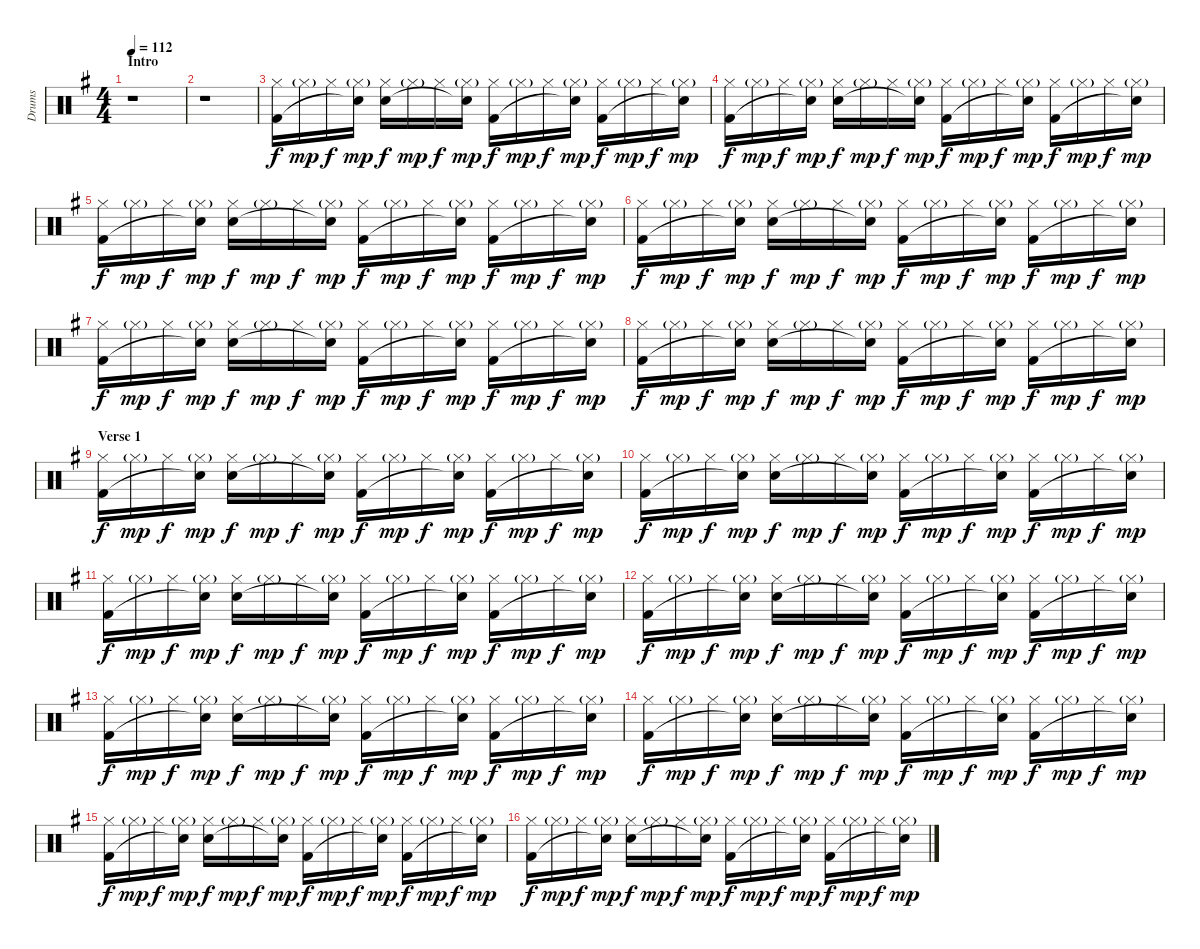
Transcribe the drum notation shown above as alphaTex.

\track ("Drums" "Drums") {instrument percussion}
\staff {score}
\articulation defaults
\ts (4 4)
\section ("" "Intro")
\tempo 112
\clef neutral
\ks g
r.1{dy f} |
r.1 |
("Hi-Hat (closed)" "Kick (hit) 2").16 "Hi-Hat (closed)"{g}.16{dy mp} "Hi-Hat (closed)".16{dy f} ("Hi-Hat (closed)"{g} "Snare (hit)"{t}).16{dy mp} ("Hi-Hat (closed)" "Electric Snare (hit)").16{dy f} "Hi-Hat (closed)"{g}.16{dy mp} "Hi-Hat (closed)".16{dy f} ("Hi-Hat (closed)"{g} "Snare (hit)"{t}).16{dy mp} ("Hi-Hat (closed)" "Kick (hit) 2").16{dy f} "Hi-Hat (closed)"{g}.16{dy mp} "Hi-Hat (closed)".16{dy f} ("Hi-Hat (closed)"{g} "Snare (hit)"{t}).16{dy mp} ("Hi-Hat (closed)" "Kick (hit) 2").16{dy f} "Hi-Hat (closed)"{g}.16{dy mp} "Hi-Hat (closed)".16{dy f} ("Hi-Hat (closed)"{g} "Snare (hit)"{t}).16{dy mp} |
("Hi-Hat (closed)" "Kick (hit) 2").16{dy f} "Hi-Hat (closed)"{g}.16{dy mp} "Hi-Hat (closed)".16{dy f} ("Hi-Hat (closed)"{g} "Snare (hit)"{t}).16{dy mp} ("Hi-Hat (closed)" "Electric Snare (hit)").16{dy f} "Hi-Hat (closed)"{g}.16{dy mp} "Hi-Hat (closed)".16{dy f} ("Hi-Hat (closed)"{g} "Snare (hit)"{t}).16{dy mp} ("Hi-Hat (closed)" "Kick (hit) 2").16{dy f} "Hi-Hat (closed)"{g}.16{dy mp} "Hi-Hat (closed)".16{dy f} ("Hi-Hat (closed)"{g} "Snare (hit)"{t}).16{dy mp} ("Hi-Hat (closed)" "Kick (hit) 2").16{dy f} "Hi-Hat (closed)"{g}.16{dy mp} "Hi-Hat (closed)".16{dy f} ("Hi-Hat (closed)"{g} "Snare (hit)"{t}).16{dy mp} |
("Hi-Hat (closed)" "Kick (hit) 2").16{dy f} "Hi-Hat (closed)"{g}.16{dy mp} "Hi-Hat (closed)".16{dy f} ("Hi-Hat (closed)"{g} "Snare (hit)"{t}).16{dy mp} ("Hi-Hat (closed)" "Electric Snare (hit)").16{dy f} "Hi-Hat (closed)"{g}.16{dy mp} "Hi-Hat (closed)".16{dy f} ("Hi-Hat (closed)"{g} "Snare (hit)"{t}).16{dy mp} ("Hi-Hat (closed)" "Kick (hit) 2").16{dy f} "Hi-Hat (closed)"{g}.16{dy mp} "Hi-Hat (closed)".16{dy f} ("Hi-Hat (closed)"{g} "Snare (hit)"{t}).16{dy mp} ("Hi-Hat (closed)" "Kick (hit) 2").16{dy f} "Hi-Hat (closed)"{g}.16{dy mp} "Hi-Hat (closed)".16{dy f} ("Hi-Hat (closed)"{g} "Snare (hit)"{t}).16{dy mp} |
("Hi-Hat (closed)" "Kick (hit) 2").16{dy f} "Hi-Hat (closed)"{g}.16{dy mp} "Hi-Hat (closed)".16{dy f} ("Hi-Hat (closed)"{g} "Snare (hit)"{t}).16{dy mp} ("Hi-Hat (closed)" "Electric Snare (hit)").16{dy f} "Hi-Hat (closed)"{g}.16{dy mp} "Hi-Hat (closed)".16{dy f} ("Hi-Hat (closed)"{g} "Snare (hit)"{t}).16{dy mp} ("Hi-Hat (closed)" "Kick (hit) 2").16{dy f} "Hi-Hat (closed)"{g}.16{dy mp} "Hi-Hat (closed)".16{dy f} ("Hi-Hat (closed)"{g} "Snare (hit)"{t}).16{dy mp} ("Hi-Hat (closed)" "Kick (hit) 2").16{dy f} "Hi-Hat (closed)"{g}.16{dy mp} "Hi-Hat (closed)".16{dy f} ("Hi-Hat (closed)"{g} "Snare (hit)"{t}).16{dy mp} |
("Hi-Hat (closed)" "Kick (hit) 2").16{dy f} "Hi-Hat (closed)"{g}.16{dy mp} "Hi-Hat (closed)".16{dy f} ("Hi-Hat (closed)"{g} "Snare (hit)"{t}).16{dy mp} ("Hi-Hat (closed)" "Electric Snare (hit)").16{dy f} "Hi-Hat (closed)"{g}.16{dy mp} "Hi-Hat (closed)".16{dy f} ("Hi-Hat (closed)"{g} "Snare (hit)"{t}).16{dy mp} ("Hi-Hat (closed)" "Kick (hit) 2").16{dy f} "Hi-Hat (closed)"{g}.16{dy mp} "Hi-Hat (closed)".16{dy f} ("Hi-Hat (closed)"{g} "Snare (hit)"{t}).16{dy mp} ("Hi-Hat (closed)" "Kick (hit) 2").16{dy f} "Hi-Hat (closed)"{g}.16{dy mp} "Hi-Hat (closed)".16{dy f} ("Hi-Hat (closed)"{g} "Snare (hit)"{t}).16{dy mp} |
("Hi-Hat (closed)" "Kick (hit) 2").16{dy f} "Hi-Hat (closed)"{g}.16{dy mp} "Hi-Hat (closed)".16{dy f} ("Hi-Hat (closed)"{g} "Snare (hit)"{t}).16{dy mp} ("Hi-Hat (closed)" "Electric Snare (hit)").16{dy f} "Hi-Hat (closed)"{g}.16{dy mp} "Hi-Hat (closed)".16{dy f} ("Hi-Hat (closed)"{g} "Snare (hit)"{t}).16{dy mp} ("Hi-Hat (closed)" "Kick (hit) 2").16{dy f} "Hi-Hat (closed)"{g}.16{dy mp} "Hi-Hat (closed)".16{dy f} ("Hi-Hat (closed)"{g} "Snare (hit)"{t}).16{dy mp} ("Hi-Hat (closed)" "Kick (hit) 2").16{dy f} "Hi-Hat (closed)"{g}.16{dy mp} "Hi-Hat (closed)".16{dy f} ("Hi-Hat (closed)"{g} "Snare (hit)"{t}).16{dy mp} |
\section ("" "Verse 1")
("Hi-Hat (closed)" "Kick (hit) 2").16{dy f} "Hi-Hat (closed)"{g}.16{dy mp} "Hi-Hat (closed)".16{dy f} ("Hi-Hat (closed)"{g} "Snare (hit)"{t}).16{dy mp} ("Hi-Hat (closed)" "Electric Snare (hit)").16{dy f} "Hi-Hat (closed)"{g}.16{dy mp} "Hi-Hat (closed)".16{dy f} ("Hi-Hat (closed)"{g} "Snare (hit)"{t}).16{dy mp} ("Hi-Hat (closed)" "Kick (hit) 2").16{dy f} "Hi-Hat (closed)"{g}.16{dy mp} "Hi-Hat (closed)".16{dy f} ("Hi-Hat (closed)"{g} "Snare (hit)"{t}).16{dy mp} ("Hi-Hat (closed)" "Kick (hit) 2").16{dy f} "Hi-Hat (closed)"{g}.16{dy mp} "Hi-Hat (closed)".16{dy f} ("Hi-Hat (closed)"{g} "Snare (hit)"{t}).16{dy mp} |
("Hi-Hat (closed)" "Kick (hit) 2").16{dy f} "Hi-Hat (closed)"{g}.16{dy mp} "Hi-Hat (closed)".16{dy f} ("Hi-Hat (closed)"{g} "Snare (hit)"{t}).16{dy mp} ("Hi-Hat (closed)" "Electric Snare (hit)").16{dy f} "Hi-Hat (closed)"{g}.16{dy mp} "Hi-Hat (closed)".16{dy f} ("Hi-Hat (closed)"{g} "Snare (hit)"{t}).16{dy mp} ("Hi-Hat (closed)" "Kick (hit) 2").16{dy f} "Hi-Hat (closed)"{g}.16{dy mp} "Hi-Hat (closed)".16{dy f} ("Hi-Hat (closed)"{g} "Snare (hit)"{t}).16{dy mp} ("Hi-Hat (closed)" "Kick (hit) 2").16{dy f} "Hi-Hat (closed)"{g}.16{dy mp} "Hi-Hat (closed)".16{dy f} ("Hi-Hat (closed)"{g} "Snare (hit)"{t}).16{dy mp} |
("Hi-Hat (closed)" "Kick (hit) 2").16{dy f} "Hi-Hat (closed)"{g}.16{dy mp} "Hi-Hat (closed)".16{dy f} ("Hi-Hat (closed)"{g} "Snare (hit)"{t}).16{dy mp} ("Hi-Hat (closed)" "Electric Snare (hit)").16{dy f} "Hi-Hat (closed)"{g}.16{dy mp} "Hi-Hat (closed)".16{dy f} ("Hi-Hat (closed)"{g} "Snare (hit)"{t}).16{dy mp} ("Hi-Hat (closed)" "Kick (hit) 2").16{dy f} "Hi-Hat (closed)"{g}.16{dy mp} "Hi-Hat (closed)".16{dy f} ("Hi-Hat (closed)"{g} "Snare (hit)"{t}).16{dy mp} ("Hi-Hat (closed)" "Kick (hit) 2").16{dy f} "Hi-Hat (closed)"{g}.16{dy mp} "Hi-Hat (closed)".16{dy f} ("Hi-Hat (closed)"{g} "Snare (hit)"{t}).16{dy mp} |
("Hi-Hat (closed)" "Kick (hit) 2").16{dy f} "Hi-Hat (closed)"{g}.16{dy mp} "Hi-Hat (closed)".16{dy f} ("Hi-Hat (closed)"{g} "Snare (hit)"{t}).16{dy mp} ("Hi-Hat (closed)" "Electric Snare (hit)").16{dy f} "Hi-Hat (closed)"{g}.16{dy mp} "Hi-Hat (closed)".16{dy f} ("Hi-Hat (closed)"{g} "Snare (hit)"{t}).16{dy mp} ("Hi-Hat (closed)" "Kick (hit) 2").16{dy f} "Hi-Hat (closed)"{g}.16{dy mp} "Hi-Hat (closed)".16{dy f} ("Hi-Hat (closed)"{g} "Snare (hit)"{t}).16{dy mp} ("Hi-Hat (closed)" "Kick (hit) 2").16{dy f} "Hi-Hat (closed)"{g}.16{dy mp} "Hi-Hat (closed)".16{dy f} ("Hi-Hat (closed)"{g} "Snare (hit)"{t}).16{dy mp} |
("Hi-Hat (closed)" "Kick (hit) 2").16{dy f} "Hi-Hat (closed)"{g}.16{dy mp} "Hi-Hat (closed)".16{dy f} ("Hi-Hat (closed)"{g} "Snare (hit)"{t}).16{dy mp} ("Hi-Hat (closed)" "Electric Snare (hit)").16{dy f} "Hi-Hat (closed)"{g}.16{dy mp} "Hi-Hat (closed)".16{dy f} ("Hi-Hat (closed)"{g} "Snare (hit)"{t}).16{dy mp} ("Hi-Hat (closed)" "Kick (hit) 2").16{dy f} "Hi-Hat (closed)"{g}.16{dy mp} "Hi-Hat (closed)".16{dy f} ("Hi-Hat (closed)"{g} "Snare (hit)"{t}).16{dy mp} ("Hi-Hat (closed)" "Kick (hit) 2").16{dy f} "Hi-Hat (closed)"{g}.16{dy mp} "Hi-Hat (closed)".16{dy f} ("Hi-Hat (closed)"{g} "Snare (hit)"{t}).16{dy mp} |
("Hi-Hat (closed)" "Kick (hit) 2").16{dy f} "Hi-Hat (closed)"{g}.16{dy mp} "Hi-Hat (closed)".16{dy f} ("Hi-Hat (closed)"{g} "Snare (hit)"{t}).16{dy mp} ("Hi-Hat (closed)" "Electric Snare (hit)").16{dy f} "Hi-Hat (closed)"{g}.16{dy mp} "Hi-Hat (closed)".16{dy f} ("Hi-Hat (closed)"{g} "Snare (hit)"{t}).16{dy mp} ("Hi-Hat (closed)" "Kick (hit) 2").16{dy f} "Hi-Hat (closed)"{g}.16{dy mp} "Hi-Hat (closed)".16{dy f} ("Hi-Hat (closed)"{g} "Snare (hit)"{t}).16{dy mp} ("Hi-Hat (closed)" "Kick (hit) 2").16{dy f} "Hi-Hat (closed)"{g}.16{dy mp} "Hi-Hat (closed)".16{dy f} ("Hi-Hat (closed)"{g} "Snare (hit)"{t}).16{dy mp} |
("Hi-Hat (closed)" "Kick (hit) 2").16{dy f} "Hi-Hat (closed)"{g}.16{dy mp} "Hi-Hat (closed)".16{dy f} ("Hi-Hat (closed)"{g} "Snare (hit)"{t}).16{dy mp} ("Hi-Hat (closed)" "Electric Snare (hit)").16{dy f} "Hi-Hat (closed)"{g}.16{dy mp} "Hi-Hat (closed)".16{dy f} ("Hi-Hat (closed)"{g} "Snare (hit)"{t}).16{dy mp} ("Hi-Hat (closed)" "Kick (hit) 2").16{dy f} "Hi-Hat (closed)"{g}.16{dy mp} "Hi-Hat (closed)".16{dy f} ("Hi-Hat (closed)"{g} "Snare (hit)"{t}).16{dy mp} ("Hi-Hat (closed)" "Kick (hit) 2").16{dy f} "Hi-Hat (closed)"{g}.16{dy mp} "Hi-Hat (closed)".16{dy f} ("Hi-Hat (closed)"{g} "Snare (hit)"{t}).16{dy mp} |
("Hi-Hat (closed)" "Kick (hit) 2").16{dy f} "Hi-Hat (closed)"{g}.16{dy mp} "Hi-Hat (closed)".16{dy f} ("Hi-Hat (closed)"{g} "Snare (hit)"{t}).16{dy mp} ("Hi-Hat (closed)" "Electric Snare (hit)").16{dy f} "Hi-Hat (closed)"{g}.16{dy mp} "Hi-Hat (closed)".16{dy f} ("Hi-Hat (closed)"{g} "Snare (hit)"{t}).16{dy mp} ("Hi-Hat (closed)" "Kick (hit) 2").16{dy f} "Hi-Hat (closed)"{g}.16{dy mp} "Hi-Hat (closed)".16{dy f} ("Hi-Hat (closed)"{g} "Snare (hit)"{t}).16{dy mp} ("Hi-Hat (closed)" "Kick (hit) 2").16{dy f} "Hi-Hat (closed)"{g}.16{dy mp} "Hi-Hat (closed)".16{dy f} ("Hi-Hat (closed)"{g} "Snare (hit)"{t}).16{dy mp}
